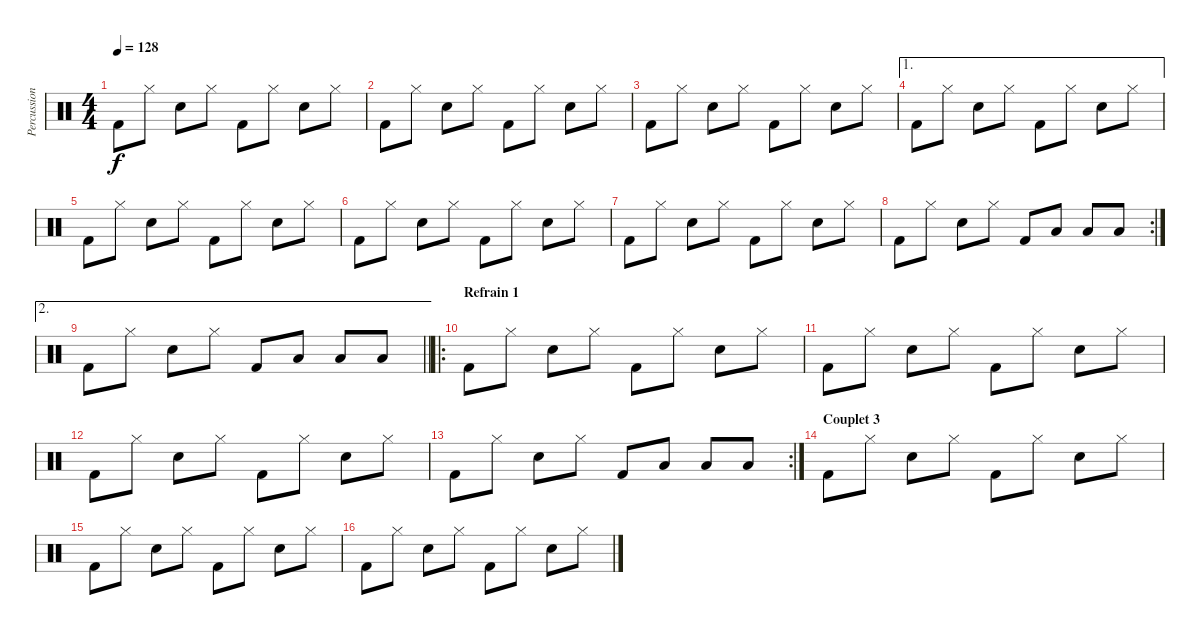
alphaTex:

\track ("Percussions" "Percussion") {instrument percussion}
\staff {score}
\articulation defaults
\ts (4 4)
\tempo 128
\clef neutral
\ks c "Kick (hit) 2".8{dy f} "Hi-Hat (closed)".8 "Electric Snare (hit)".8 "Hi-Hat (closed)".8 "Kick (hit) 2".8 "Hi-Hat (closed)".8 "Electric Snare (hit)".8 "Hi-Hat (closed)".8
|
"Kick (hit) 2".8 "Hi-Hat (closed)".8 "Electric Snare (hit)".8 "Hi-Hat (closed)".8 "Kick (hit) 2".8 "Hi-Hat (closed)".8 "Electric Snare (hit)".8 "Hi-Hat (closed)".8 |
"Kick (hit) 2".8 "Hi-Hat (closed)".8 "Electric Snare (hit)".8 "Hi-Hat (closed)".8 "Kick (hit) 2".8 "Hi-Hat (closed)".8 "Electric Snare (hit)".8 "Hi-Hat (closed)".8 |
\ae 1 "Kick (hit) 2".8 "Hi-Hat (closed)".8 "Electric Snare (hit)".8 "Hi-Hat (closed)".8 "Kick (hit) 2".8 "Hi-Hat (closed)".8 "Electric Snare (hit)".8 "Hi-Hat (closed)".8
|
"Kick (hit) 2".8 "Hi-Hat (closed)".8 "Electric Snare (hit)".8 "Hi-Hat (closed)".8 "Kick (hit) 2".8 "Hi-Hat (closed)".8 "Electric Snare (hit)".8 "Hi-Hat (closed)".8 |
"Kick (hit) 2".8 "Hi-Hat (closed)".8 "Electric Snare (hit)".8 "Hi-Hat (closed)".8 "Kick (hit) 2".8 "Hi-Hat (closed)".8 "Electric Snare (hit)".8 "Hi-Hat (closed)".8 |
"Kick (hit) 2".8 "Hi-Hat (closed)".8 "Electric Snare (hit)".8 "Hi-Hat (closed)".8 "Kick (hit) 2".8 "Hi-Hat (closed)".8 "Electric Snare (hit)".8 "Hi-Hat (closed)".8 |
\rc 2 "Kick (hit) 2".8 "Hi-Hat (closed)".8 "Electric Snare (hit)".8 "Hi-Hat (closed)".8 "Kick (hit) 2".8 "Low Tom (hit)".8 "Low Tom (hit)".8 "Low Floor Tom (hit)".8
|
\ae 2
\barLineRight lightlight "Kick (hit) 2".8 "Hi-Hat (closed)".8 "Electric Snare (hit)".8 "Hi-Hat (closed)".8 "Kick (hit) 2".8 "Low Tom (hit)".8 "Low Tom (hit)".8 "Low Floor Tom (hit)".8
|
\ro
\section ("" "Refrain 1")
"Kick (hit) 2".8 "Hi-Hat (closed)".8 "Electric Snare (hit)".8 "Hi-Hat (closed)".8 "Kick (hit) 2".8 "Hi-Hat (closed)".8 "Electric Snare (hit)".8 "Hi-Hat (closed)".8 |
"Kick (hit) 2".8 "Hi-Hat (closed)".8 "Electric Snare (hit)".8 "Hi-Hat (closed)".8 "Kick (hit) 2".8 "Hi-Hat (closed)".8 "Electric Snare (hit)".8 "Hi-Hat (closed)".8 |
"Kick (hit) 2".8 "Hi-Hat (closed)".8 "Electric Snare (hit)".8 "Hi-Hat (closed)".8 "Kick (hit) 2".8 "Hi-Hat (closed)".8 "Electric Snare (hit)".8 "Hi-Hat (closed)".8 |
\rc 2 "Kick (hit) 2".8 "Hi-Hat (closed)".8 "Electric Snare (hit)".8 "Hi-Hat (closed)".8 "Kick (hit) 2".8 "Low Tom (hit)".8 "Low Tom (hit)".8 "Low Floor Tom (hit)".8
|
\section ("" "Couplet 3")
"Kick (hit) 2".8 "Hi-Hat (closed)".8 "Electric Snare (hit)".8 "Hi-Hat (closed)".8 "Kick (hit) 2".8 "Hi-Hat (closed)".8 "Electric Snare (hit)".8 "Hi-Hat (closed)".8 |
"Kick (hit) 2".8 "Hi-Hat (closed)".8 "Electric Snare (hit)".8 "Hi-Hat (closed)".8 "Kick (hit) 2".8 "Hi-Hat (closed)".8 "Electric Snare (hit)".8 "Hi-Hat (closed)".8 |
"Kick (hit) 2".8 "Hi-Hat (closed)".8 "Electric Snare (hit)".8 "Hi-Hat (closed)".8 "Kick (hit) 2".8 "Hi-Hat (closed)".8 "Electric Snare (hit)".8 "Hi-Hat (closed)".8
